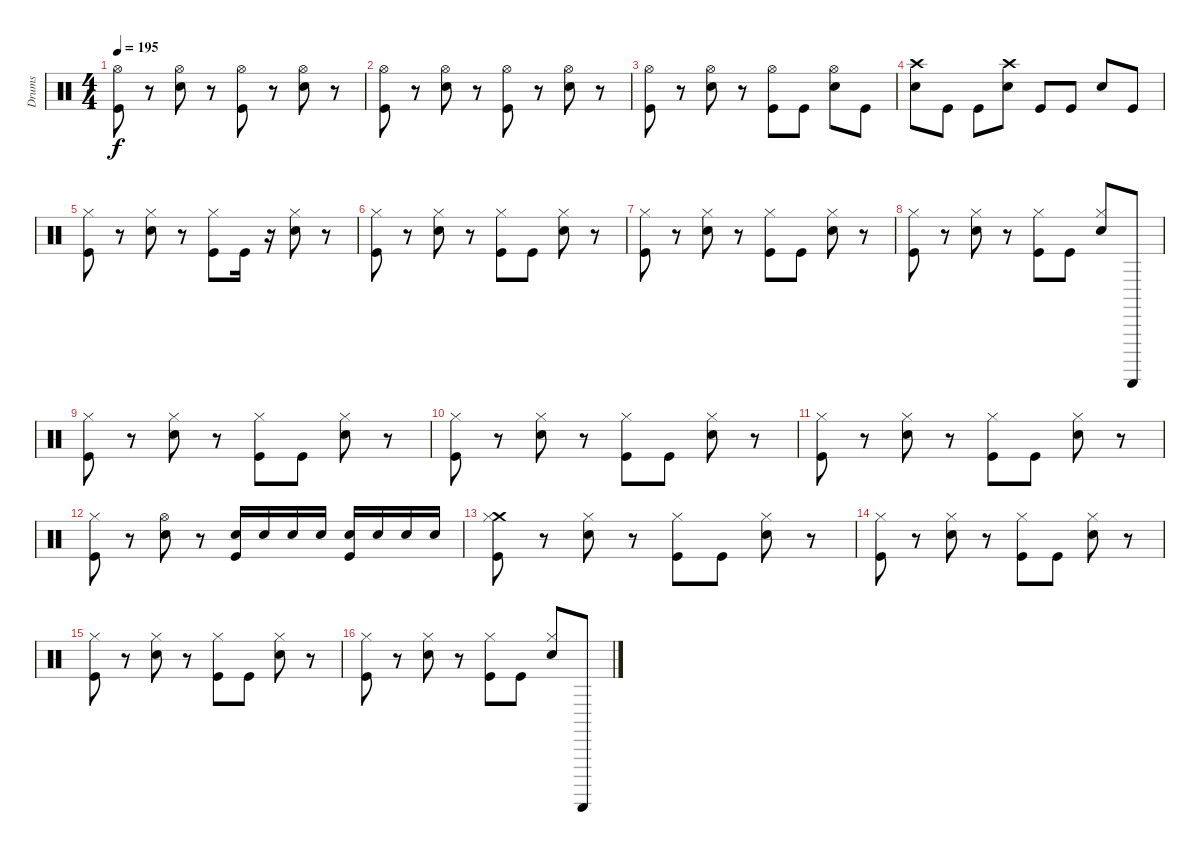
\track ("Drums" "Drums") {instrument percussion}
\staff {score}
\articulation defaults
\ts (4 4)
\tempo 195
\clef neutral
\ks c
("Hi-Hat (open)" "Kick (hit)").8{dy f} r.8 ("Electric Snare (hit)" "Hi-Hat (open)").8 r.8 ("Kick (hit)" "Hi-Hat (open)").8 r.8 ("Hi-Hat (open)" "Electric Snare (hit)").8 r.8 |
("Kick (hit)" "Hi-Hat (open)").8 r.8 ("Hi-Hat (open)" "Electric Snare (hit)").8 r.8 ("Kick (hit)" "Hi-Hat (open)").8 r.8 ("Hi-Hat (open)" "Electric Snare (hit)").8 r.8 |
("Hi-Hat (open)" "Kick (hit)").8 r.8 ("Hi-Hat (open)" "Electric Snare (hit)").8 r.8 ("Kick (hit)" "Hi-Hat (open)").8 "Kick (hit)".8 ("Electric Snare (hit)" "Hi-Hat (open)").8 "Kick (hit)".8 |
("Electric Snare (hit)" "Crash high (hit)").8 "Kick (hit)".8 "Kick (hit)".8 ("Crash high (hit)" "Electric Snare (hit)").8 "Kick (hit)".8 "Kick (hit)".8 "Electric Snare (hit)".8 "Kick (hit)".8 |
("Kick (hit)" "Hi-Hat (closed)").8 r.8 ("Electric Snare (hit)" "Hi-Hat (closed)").8 r.8 ("Kick (hit)" "Hi-Hat (closed)").8 "Kick (hit)".16 r.16 ("Hi-Hat (closed)" "Electric Snare (hit)").8 r.8 |
("Kick (hit)" "Hi-Hat (closed)").8 r.8 ("Hi-Hat (closed)" "Electric Snare (hit)").8 r.8 ("Hi-Hat (closed)" "Kick (hit)").8 "Kick (hit)".8 ("Electric Snare (hit)" "Hi-Hat (closed)").8 r.8 |
("Hi-Hat (closed)" "Kick (hit)").8 r.8 ("Hi-Hat (closed)" "Electric Snare (hit)").8 r.8 ("Kick (hit)" "Hi-Hat (closed)").8 "Kick (hit)".8 ("Electric Snare (hit)" "Hi-Hat (closed)").8 r.8 |
("Kick (hit)" "Hi-Hat (closed)").8 r.8 ("Electric Snare (hit)" "Hi-Hat (closed)").8 r.8 ("Hi-Hat (closed)" "Kick (hit)").8 "Kick (hit)".8 ("Hi-Hat (closed)" "Electric Snare (hit)").8 "Guiro (scrap-return)".8 |
("Hi-Hat (closed)" "Kick (hit)").8 r.8 ("Hi-Hat (closed)" "Electric Snare (hit)").8 r.8 ("Kick (hit)" "Hi-Hat (closed)").8 "Kick (hit)".8 ("Hi-Hat (closed)" "Electric Snare (hit)").8 r.8 |
("Hi-Hat (closed)" "Kick (hit)").8 r.8 ("Electric Snare (hit)" "Hi-Hat (closed)").8 r.8 ("Kick (hit)" "Hi-Hat (closed)").8 "Kick (hit)".8 ("Electric Snare (hit)" "Hi-Hat (closed)").8 r.8 |
("Hi-Hat (closed)" "Kick (hit)").8 r.8 ("Hi-Hat (closed)" "Electric Snare (hit)").8 r.8 ("Kick (hit)" "Hi-Hat (closed)").8 "Kick (hit)".8 ("Electric Snare (hit)" "Hi-Hat (closed)").8 r.8 |
("Hi-Hat (closed)" "Kick (hit)").8 r.8 ("Hi-Hat (open)" "Electric Snare (hit)").8 r.8 ("Electric Snare (hit)" "Kick (hit)").16 "Electric Snare (hit)".16 "Electric Snare (hit)".16 "Electric Snare (hit)".16 ("Kick (hit)" "Electric Snare (hit)").16 "Electric Snare (hit)".16 "Electric Snare (hit)".16 "Electric Snare (hit)".16 |
("Kick (hit)" "Crash medium (hit)" "Hi-Hat (closed)").8 r.8 ("Hi-Hat (closed)" "Electric Snare (hit)").8 r.8 ("Hi-Hat (closed)" "Kick (hit)").8 "Kick (hit)".8 ("Electric Snare (hit)" "Hi-Hat (closed)").8 r.8 |
("Kick (hit)" "Hi-Hat (closed)").8 r.8 ("Hi-Hat (closed)" "Electric Snare (hit)").8 r.8 ("Kick (hit)" "Hi-Hat (closed)").8 "Kick (hit)".8 ("Electric Snare (hit)" "Hi-Hat (closed)").8 r.8 |
("Kick (hit)" "Hi-Hat (closed)").8 r.8 ("Hi-Hat (closed)" "Electric Snare (hit)").8 r.8 ("Kick (hit)" "Hi-Hat (closed)").8 "Kick (hit)".8 ("Electric Snare (hit)" "Hi-Hat (closed)").8 r.8 |
("Hi-Hat (closed)" "Kick (hit)").8 r.8 ("Electric Snare (hit)" "Hi-Hat (closed)").8 r.8 ("Hi-Hat (closed)" "Kick (hit)").8 "Kick (hit)".8 ("Electric Snare (hit)" "Hi-Hat (closed)").8 "Guiro (scrap-return)".8
